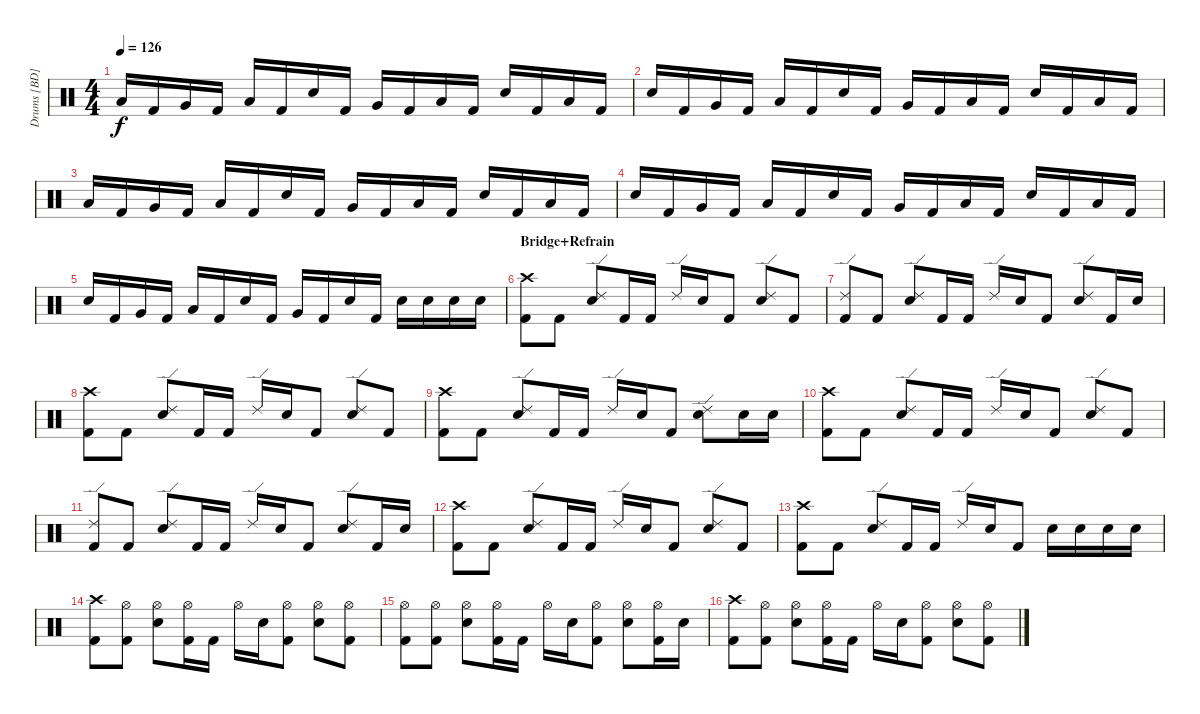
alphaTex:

\track ("Drums [BD]" "Drums [BD]") {instrument percussion}
\staff {score}
\articulation defaults
\ts (4 4)
\tempo 126
\clef neutral
\ks c "Low Tom (hit)".16{dy f} "Kick (hit) 2".16 "Very Low Tom (hit)".16 "Kick (hit) 2".16 "Low Floor Tom (hit)".16 "Kick (hit) 2".16 "Electric Snare (hit)".16 "Kick (hit) 2".16 "Very Low Tom (hit)".16 "Kick (hit) 2".16 "Low Floor Tom (hit)".16 "Kick (hit) 2".16 "Electric Snare (hit)".16 "Kick (hit) 2".16 "Low Floor Tom (hit)".16 "Kick (hit) 2".16
|
"Electric Snare (hit)".16 "Kick (hit) 2".16 "Very Low Tom (hit)".16 "Kick (hit) 2".16 "Low Floor Tom (hit)".16 "Kick (hit) 2".16 "Electric Snare (hit)".16 "Kick (hit) 2".16 "Very Low Tom (hit)".16 "Kick (hit) 2".16 "Low Floor Tom (hit)".16 "Kick (hit) 2".16 "Electric Snare (hit)".16 "Kick (hit) 2".16 "Low Floor Tom (hit)".16 "Kick (hit) 2".16 |
"Low Tom (hit)".16 "Kick (hit) 2".16 "Very Low Tom (hit)".16 "Kick (hit) 2".16 "Low Floor Tom (hit)".16 "Kick (hit) 2".16 "Electric Snare (hit)".16 "Kick (hit) 2".16 "Very Low Tom (hit)".16 "Kick (hit) 2".16 "Low Floor Tom (hit)".16 "Kick (hit) 2".16 "Electric Snare (hit)".16 "Kick (hit) 2".16 "Low Floor Tom (hit)".16 "Kick (hit) 2".16 |
"Electric Snare (hit)".16 "Kick (hit) 2".16 "Very Low Tom (hit)".16 "Kick (hit) 2".16 "Low Floor Tom (hit)".16 "Kick (hit) 2".16 "Electric Snare (hit)".16 "Kick (hit) 2".16 "Very Low Tom (hit)".16 "Kick (hit) 2".16 "Low Floor Tom (hit)".16 "Kick (hit) 2".16 "Electric Snare (hit)".16 "Kick (hit) 2".16 "Low Floor Tom (hit)".16 "Kick (hit) 2".16 |
"Electric Snare (hit)".16 "Kick (hit) 2".16 "Very Low Tom (hit)".16 "Kick (hit) 2".16 "Low Floor Tom (hit)".16 "Kick (hit) 2".16 "Electric Snare (hit)".16 "Kick (hit) 2".16 "Very Low Tom (hit)".16 "Kick (hit) 2".16 "Electric Snare (hit)".16 "Kick (hit) 2".16 "Electric Snare (hit)".16 "Electric Snare (hit)".16 "Electric Snare (hit)".16 "Electric Snare (hit)".16 |
\section ("" "Bridge+Refrain")
("Kick (hit) 2" "Crash high (hit)").8 "Kick (hit) 2".8 ("Electric Snare (hit)" "Ride (edge) 2").8 "Kick (hit) 2".16 "Kick (hit) 2".16 "Ride (edge) 2".16 "Electric Snare (hit)".16 "Kick (hit) 2".8 ("Electric Snare (hit)" "Ride (edge) 2").8 "Kick (hit) 2".8 |
("Kick (hit) 2" "Ride (edge) 2").8 "Kick (hit) 2".8 ("Electric Snare (hit)" "Ride (edge) 2").8 "Kick (hit) 2".16 "Kick (hit) 2".16 "Ride (edge) 2".16 "Electric Snare (hit)".16 "Kick (hit) 2".8 ("Electric Snare (hit)" "Ride (edge) 2").8 "Kick (hit) 2".16 "Electric Snare (hit)".16 |
("Kick (hit) 2" "Crash high (hit)").8 "Kick (hit) 2".8 ("Electric Snare (hit)" "Ride (edge) 2").8 "Kick (hit) 2".16 "Kick (hit) 2".16 "Ride (edge) 2".16 "Electric Snare (hit)".16 "Kick (hit) 2".8 ("Electric Snare (hit)" "Ride (edge) 2").8 "Kick (hit) 2".8 |
("Kick (hit) 2" "Crash high (hit)").8 "Kick (hit) 2".8 ("Electric Snare (hit)" "Ride (edge) 2").8 "Kick (hit) 2".16 "Kick (hit) 2".16 "Ride (edge) 2".16 "Electric Snare (hit)".16 "Kick (hit) 2".8 ("Electric Snare (hit)" "Ride (edge) 2").8 "Electric Snare (hit)".16 "Electric Snare (hit)".16 |
("Kick (hit) 2" "Crash high (hit)").8 "Kick (hit) 2".8 ("Electric Snare (hit)" "Ride (edge) 2").8 "Kick (hit) 2".16 "Kick (hit) 2".16 "Ride (edge) 2".16 "Electric Snare (hit)".16 "Kick (hit) 2".8 ("Electric Snare (hit)" "Ride (edge) 2").8 "Kick (hit) 2".8 |
("Kick (hit) 2" "Ride (edge) 2").8 "Kick (hit) 2".8 ("Electric Snare (hit)" "Ride (edge) 2").8 "Kick (hit) 2".16 "Kick (hit) 2".16 "Ride (edge) 2".16 "Electric Snare (hit)".16 "Kick (hit) 2".8 ("Electric Snare (hit)" "Ride (edge) 2").8 "Kick (hit) 2".16 "Electric Snare (hit)".16 |
("Kick (hit) 2" "Crash high (hit)").8 "Kick (hit) 2".8 ("Electric Snare (hit)" "Ride (edge) 2").8 "Kick (hit) 2".16 "Kick (hit) 2".16 "Ride (edge) 2".16 "Electric Snare (hit)".16 "Kick (hit) 2".8 ("Electric Snare (hit)" "Ride (edge) 2").8 "Kick (hit) 2".8 |
("Kick (hit) 2" "Crash high (hit)").8 "Kick (hit) 2".8 ("Electric Snare (hit)" "Ride (edge) 2").8 "Kick (hit) 2".16 "Kick (hit) 2".16 "Ride (edge) 2".16 "Electric Snare (hit)".16 "Kick (hit) 2".8 "Electric Snare (hit)".16 "Electric Snare (hit)".16 "Electric Snare (hit)".16 "Electric Snare (hit)".16 |
("Kick (hit) 2" "Crash high (hit)").8 ("Kick (hit) 2" "Hi-Hat (open)").8 ("Electric Snare (hit)" "Hi-Hat (open)").8 ("Kick (hit) 2" "Hi-Hat (open)").16 "Kick (hit) 2".16 "Hi-Hat (open)".16 "Electric Snare (hit)".16 ("Kick (hit) 2" "Hi-Hat (open)").8 ("Electric Snare (hit)" "Hi-Hat (open)").8 ("Kick (hit) 2" "Hi-Hat (open)").8 |
("Kick (hit) 2" "Hi-Hat (open)").8 ("Kick (hit) 2" "Hi-Hat (open)").8 ("Electric Snare (hit)" "Hi-Hat (open)").8 ("Kick (hit) 2" "Hi-Hat (open)").16 "Kick (hit) 2".16 "Hi-Hat (open)".16 "Electric Snare (hit)".16 ("Kick (hit) 2" "Hi-Hat (open)").8 ("Electric Snare (hit)" "Hi-Hat (open)").8 ("Kick (hit) 2" "Hi-Hat (open)").16 "Electric Snare (hit)".16 |
("Kick (hit) 2" "Crash high (hit)").8 ("Kick (hit) 2" "Hi-Hat (open)").8 ("Electric Snare (hit)" "Hi-Hat (open)").8 ("Kick (hit) 2" "Hi-Hat (open)").16 "Kick (hit) 2".16 "Hi-Hat (open)".16 "Electric Snare (hit)".16 ("Kick (hit) 2" "Hi-Hat (open)").8 ("Electric Snare (hit)" "Hi-Hat (open)").8 ("Kick (hit) 2" "Hi-Hat (open)").8
